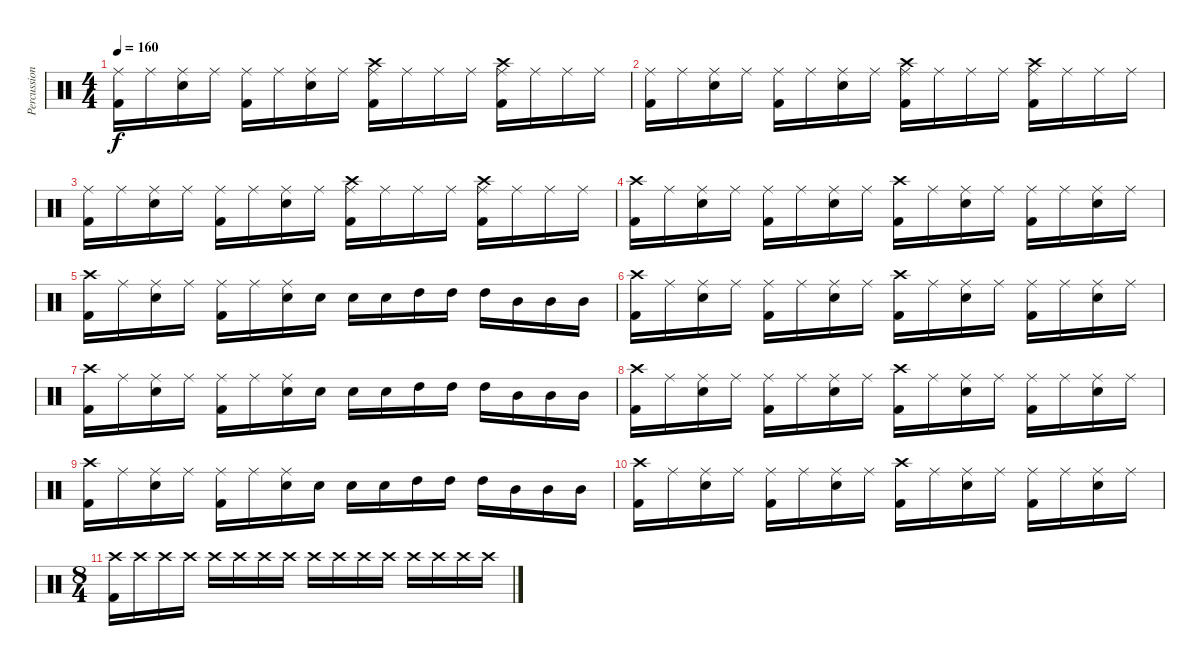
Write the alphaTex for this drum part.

\track ("Percussion" "Percussion") {instrument percussion}
\staff {score}
\articulation defaults
\ts (4 4)
\tempo 160
\clef neutral
\ks c
("Kick (hit) 2" "Ride (middle)").16{dy f} "Ride (middle)".16 ("Snare (hit) 2" "Ride (middle)").16 "Ride (middle)".16 ("Kick (hit) 2" "Ride (middle)").16 "Ride (middle)".16 ("Snare (hit) 2" "Ride (middle)").16 "Ride (middle)".16 ("Kick (hit) 2" "Crash high (hit)" "Ride (middle)").16 "Ride (middle)".16 "Ride (middle)".16 "Ride (middle)".16 ("Kick (hit) 2" "Crash high (hit)" "Ride (middle)").16 "Ride (middle)".16 "Ride (middle)".16 "Ride (middle)".16 |
("Kick (hit) 2" "Ride (middle)").16 "Ride (middle)".16 ("Snare (hit) 2" "Ride (middle)").16 "Ride (middle)".16 ("Kick (hit) 2" "Ride (middle)").16 "Ride (middle)".16 ("Snare (hit) 2" "Ride (middle)").16 "Ride (middle)".16 ("Kick (hit) 2" "Crash high (hit)" "Ride (middle)").16 "Ride (middle)".16 "Ride (middle)".16 "Ride (middle)".16 ("Kick (hit) 2" "Crash high (hit)" "Ride (middle)").16 "Ride (middle)".16 "Ride (middle)".16 "Ride (middle)".16 |
("Kick (hit) 2" "Ride (middle)").16 "Ride (middle)".16 ("Snare (hit) 2" "Ride (middle)").16 "Ride (middle)".16 ("Kick (hit) 2" "Ride (middle)").16 "Ride (middle)".16 ("Snare (hit) 2" "Ride (middle)").16 "Ride (middle)".16 ("Kick (hit) 2" "Crash high (hit)" "Ride (middle)").16 "Ride (middle)".16 "Ride (middle)".16 "Ride (middle)".16 ("Kick (hit) 2" "Crash high (hit)" "Ride (middle)").16 "Ride (middle)".16 "Ride (middle)".16 "Ride (middle)".16 |
("Crash high (hit)" "Kick (hit) 2").16 "Ride (middle)".16 ("Snare (hit) 2" "Ride (middle)").16 "Ride (middle)".16 ("Kick (hit) 2" "Ride (middle)").16 "Ride (middle)".16 ("Snare (hit) 2" "Ride (middle)").16 "Ride (middle)".16 ("Crash high (hit)" "Kick (hit) 2").16 "Ride (middle)".16 ("Snare (hit) 2" "Ride (middle)").16 "Ride (middle)".16 ("Kick (hit) 2" "Ride (middle)").16 "Ride (middle)".16 ("Snare (hit) 2" "Ride (middle)").16 "Ride (middle)".16 |
("Crash high (hit)" "Kick (hit) 2").16 "Ride (middle)".16 ("Snare (hit) 2" "Ride (middle)").16 "Ride (middle)".16 ("Kick (hit) 2" "Ride (middle)").16 "Ride (middle)".16 ("Snare (hit) 2" "Ride (middle)").16 "Snare (hit) 2".16 "Snare (hit) 2".16 "Snare (hit) 2".16 "High Tom (hit)".16 "High Tom (hit)".16 "High Tom (hit)".16 "Mid Tom (hit)".16 "Mid Tom (hit)".16 "Mid Tom (hit)".16 |
("Crash high (hit)" "Kick (hit) 2").16 "Ride (middle)".16 ("Snare (hit) 2" "Ride (middle)").16 "Ride (middle)".16 ("Kick (hit) 2" "Ride (middle)").16 "Ride (middle)".16 ("Snare (hit) 2" "Ride (middle)").16 "Ride (middle)".16 ("Crash high (hit)" "Kick (hit) 2").16 "Ride (middle)".16 ("Snare (hit) 2" "Ride (middle)").16 "Ride (middle)".16 ("Kick (hit) 2" "Ride (middle)").16 "Ride (middle)".16 ("Snare (hit) 2" "Ride (middle)").16 "Ride (middle)".16 |
("Crash high (hit)" "Kick (hit) 2").16 "Ride (middle)".16 ("Snare (hit) 2" "Ride (middle)").16 "Ride (middle)".16 ("Kick (hit) 2" "Ride (middle)").16 "Ride (middle)".16 ("Snare (hit) 2" "Ride (middle)").16 "Snare (hit) 2".16 "Snare (hit) 2".16 "Snare (hit) 2".16 "High Tom (hit)".16 "High Tom (hit)".16 "High Tom (hit)".16 "Mid Tom (hit)".16 "Mid Tom (hit)".16 "Mid Tom (hit)".16 |
("Crash high (hit)" "Kick (hit) 2").16 "Ride (middle)".16 ("Snare (hit) 2" "Ride (middle)").16 "Ride (middle)".16 ("Kick (hit) 2" "Ride (middle)").16 "Ride (middle)".16 ("Snare (hit) 2" "Ride (middle)").16 "Ride (middle)".16 ("Crash high (hit)" "Kick (hit) 2").16 "Ride (middle)".16 ("Snare (hit) 2" "Ride (middle)").16 "Ride (middle)".16 ("Kick (hit) 2" "Ride (middle)").16 "Ride (middle)".16 ("Snare (hit) 2" "Ride (middle)").16 "Ride (middle)".16 |
("Crash high (hit)" "Kick (hit) 2").16 "Ride (middle)".16 ("Snare (hit) 2" "Ride (middle)").16 "Ride (middle)".16 ("Kick (hit) 2" "Ride (middle)").16 "Ride (middle)".16 ("Snare (hit) 2" "Ride (middle)").16 "Snare (hit) 2".16 "Snare (hit) 2".16 "Snare (hit) 2".16 "High Tom (hit)".16 "High Tom (hit)".16 "High Tom (hit)".16 "Mid Tom (hit)".16 "Mid Tom (hit)".16 "Mid Tom (hit)".16 |
("Crash high (hit)" "Kick (hit) 2").16 "Ride (middle)".16 ("Snare (hit) 2" "Ride (middle)").16 "Ride (middle)".16 ("Kick (hit) 2" "Ride (middle)").16 "Ride (middle)".16 ("Snare (hit) 2" "Ride (middle)").16 "Ride (middle)".16 ("Crash high (hit)" "Kick (hit) 2").16 "Ride (middle)".16 ("Snare (hit) 2" "Ride (middle)").16 "Ride (middle)".16 ("Kick (hit) 2" "Ride (middle)").16 "Ride (middle)".16 ("Snare (hit) 2" "Ride (middle)").16 "Ride (middle)".16 |
\ts (8 4)
("Crash high (hit)" "Kick (hit) 2").16 "Crash high (hit)".16 "Crash high (hit)".16 "Crash high (hit)".16 "Crash high (hit)".16 "Crash high (hit)".16 "Crash high (hit)".16 "Crash high (hit)".16 "Crash high (hit)".16 "Crash high (hit)".16 "Crash high (hit)".16 "Crash high (hit)".16 "Crash high (hit)".16 "Crash high (hit)".16 "Crash high (hit)".16 "Crash high (hit)".16
